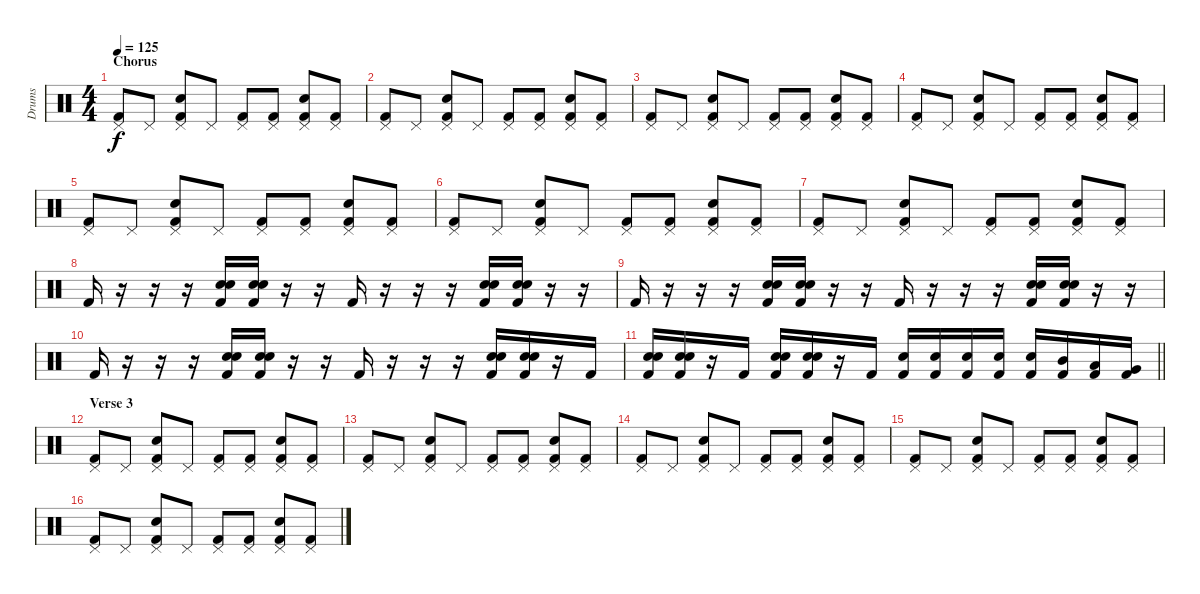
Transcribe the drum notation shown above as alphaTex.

\track ("Drums" "Drums") {instrument percussion}
\staff {score}
\articulation defaults
\ts (4 4)
\section ("" "Chorus")
\tempo 125
\clef neutral
\ks c
("Pedal Hi-Hat (hit)" "Kick (hit) 2").8{dy f} "Pedal Hi-Hat (hit)".8 ("Pedal Hi-Hat (hit)" "Snare (hit) 2" "Kick (hit) 2").8 "Pedal Hi-Hat (hit)".8 ("Pedal Hi-Hat (hit)" "Kick (hit) 2").8 ("Pedal Hi-Hat (hit)" "Kick (hit) 2").8 ("Pedal Hi-Hat (hit)" "Snare (hit) 2" "Kick (hit) 2").8 ("Pedal Hi-Hat (hit)" "Kick (hit) 2").8 |
("Pedal Hi-Hat (hit)" "Kick (hit) 2").8 "Pedal Hi-Hat (hit)".8 ("Pedal Hi-Hat (hit)" "Snare (hit) 2" "Kick (hit) 2").8 "Pedal Hi-Hat (hit)".8 ("Pedal Hi-Hat (hit)" "Kick (hit) 2").8 ("Pedal Hi-Hat (hit)" "Kick (hit) 2").8 ("Pedal Hi-Hat (hit)" "Snare (hit) 2" "Kick (hit) 2").8 ("Pedal Hi-Hat (hit)" "Kick (hit) 2").8 |
("Pedal Hi-Hat (hit)" "Kick (hit) 2").8 "Pedal Hi-Hat (hit)".8 ("Pedal Hi-Hat (hit)" "Snare (hit) 2" "Kick (hit) 2").8 "Pedal Hi-Hat (hit)".8 ("Pedal Hi-Hat (hit)" "Kick (hit) 2").8 ("Pedal Hi-Hat (hit)" "Kick (hit) 2").8 ("Pedal Hi-Hat (hit)" "Snare (hit) 2" "Kick (hit) 2").8 ("Pedal Hi-Hat (hit)" "Kick (hit) 2").8 |
("Pedal Hi-Hat (hit)" "Kick (hit) 2").8 "Pedal Hi-Hat (hit)".8 ("Pedal Hi-Hat (hit)" "Snare (hit) 2" "Kick (hit) 2").8 "Pedal Hi-Hat (hit)".8 ("Pedal Hi-Hat (hit)" "Kick (hit) 2").8 ("Pedal Hi-Hat (hit)" "Kick (hit) 2").8 ("Pedal Hi-Hat (hit)" "Snare (hit) 2" "Kick (hit) 2").8 ("Pedal Hi-Hat (hit)" "Kick (hit) 2").8 |
("Pedal Hi-Hat (hit)" "Kick (hit) 2").8 "Pedal Hi-Hat (hit)".8 ("Pedal Hi-Hat (hit)" "Snare (hit) 2" "Kick (hit) 2").8 "Pedal Hi-Hat (hit)".8 ("Pedal Hi-Hat (hit)" "Kick (hit) 2").8 ("Pedal Hi-Hat (hit)" "Kick (hit) 2").8 ("Pedal Hi-Hat (hit)" "Snare (hit) 2" "Kick (hit) 2").8 ("Pedal Hi-Hat (hit)" "Kick (hit) 2").8 |
("Pedal Hi-Hat (hit)" "Kick (hit) 2").8 "Pedal Hi-Hat (hit)".8 ("Pedal Hi-Hat (hit)" "Snare (hit) 2" "Kick (hit) 2").8 "Pedal Hi-Hat (hit)".8 ("Pedal Hi-Hat (hit)" "Kick (hit) 2").8 ("Pedal Hi-Hat (hit)" "Kick (hit) 2").8 ("Pedal Hi-Hat (hit)" "Snare (hit) 2" "Kick (hit) 2").8 ("Pedal Hi-Hat (hit)" "Kick (hit) 2").8 |
("Pedal Hi-Hat (hit)" "Kick (hit) 2").8 "Pedal Hi-Hat (hit)".8 ("Pedal Hi-Hat (hit)" "Snare (hit) 2" "Kick (hit) 2").8 "Pedal Hi-Hat (hit)".8 ("Pedal Hi-Hat (hit)" "Kick (hit) 2").8 ("Pedal Hi-Hat (hit)" "Kick (hit) 2").8 ("Pedal Hi-Hat (hit)" "Snare (hit) 2" "Kick (hit) 2").8 ("Pedal Hi-Hat (hit)" "Kick (hit) 2").8 |
"Kick (hit) 2".16 r.16 r.16 r.16 ("Electric Snare (hit)" "Snare (hit) 2" "Kick (hit) 2").16 ("Electric Snare (hit)" "Snare (hit) 2" "Kick (hit) 2").16 r.16 r.16 "Kick (hit) 2".16 r.16 r.16 r.16 ("Electric Snare (hit)" "Snare (hit) 2" "Kick (hit) 2").16 ("Electric Snare (hit)" "Snare (hit) 2" "Kick (hit) 2").16 r.16 r.16 |
"Kick (hit) 2".16 r.16 r.16 r.16 ("Electric Snare (hit)" "Snare (hit) 2" "Kick (hit) 2").16 ("Electric Snare (hit)" "Snare (hit) 2" "Kick (hit) 2").16 r.16 r.16 "Kick (hit) 2".16 r.16 r.16 r.16 ("Electric Snare (hit)" "Snare (hit) 2" "Kick (hit) 2").16 ("Electric Snare (hit)" "Snare (hit) 2" "Kick (hit) 2").16 r.16 r.16 |
"Kick (hit) 2".16 r.16 r.16 r.16 ("Electric Snare (hit)" "Snare (hit) 2" "Kick (hit) 2").16 ("Electric Snare (hit)" "Snare (hit) 2" "Kick (hit) 2").16 r.16 r.16 "Kick (hit) 2".16 r.16 r.16 r.16 ("Electric Snare (hit)" "Snare (hit) 2" "Kick (hit) 2").16 ("Electric Snare (hit)" "Snare (hit) 2" "Kick (hit) 2").16 r.16 "Kick (hit) 2".16 |
\barLineRight lightlight
("Electric Snare (hit)" "Snare (hit) 2" "Kick (hit) 2").16 ("Electric Snare (hit)" "Snare (hit) 2" "Kick (hit) 2").16 r.16 "Kick (hit) 2".16 ("Electric Snare (hit)" "Snare (hit) 2" "Kick (hit) 2").16 ("Electric Snare (hit)" "Snare (hit) 2" "Kick (hit) 2").16 r.16 "Kick (hit) 2".16 ("Snare (hit) 2" "Kick (hit) 2").16 ("Snare (hit) 2" "Kick (hit) 2").16 ("Snare (hit) 2" "Kick (hit) 2").16 ("Snare (hit) 2" "Kick (hit) 2").16 ("Snare (hit) 2" "Kick (hit) 2").16 ("Mid Tom (hit)" "Kick (hit) 2").16 ("Low Tom (hit)" "Kick (hit) 2").16 ("Very Low Tom (hit)" "Kick (hit) 2").16 |
\section ("" "Verse 3")
("Pedal Hi-Hat (hit)" "Kick (hit) 2").8 "Pedal Hi-Hat (hit)".8 ("Pedal Hi-Hat (hit)" "Snare (hit) 2" "Kick (hit) 2").8 "Pedal Hi-Hat (hit)".8 ("Pedal Hi-Hat (hit)" "Kick (hit) 2").8 ("Pedal Hi-Hat (hit)" "Kick (hit) 2").8 ("Pedal Hi-Hat (hit)" "Snare (hit) 2" "Kick (hit) 2").8 ("Pedal Hi-Hat (hit)" "Kick (hit) 2").8 |
("Pedal Hi-Hat (hit)" "Kick (hit) 2").8 "Pedal Hi-Hat (hit)".8 ("Pedal Hi-Hat (hit)" "Snare (hit) 2" "Kick (hit) 2").8 "Pedal Hi-Hat (hit)".8 ("Pedal Hi-Hat (hit)" "Kick (hit) 2").8 ("Pedal Hi-Hat (hit)" "Kick (hit) 2").8 ("Pedal Hi-Hat (hit)" "Snare (hit) 2" "Kick (hit) 2").8 ("Pedal Hi-Hat (hit)" "Kick (hit) 2").8 |
("Pedal Hi-Hat (hit)" "Kick (hit) 2").8 "Pedal Hi-Hat (hit)".8 ("Pedal Hi-Hat (hit)" "Snare (hit) 2" "Kick (hit) 2").8 "Pedal Hi-Hat (hit)".8 ("Pedal Hi-Hat (hit)" "Kick (hit) 2").8 ("Pedal Hi-Hat (hit)" "Kick (hit) 2").8 ("Pedal Hi-Hat (hit)" "Snare (hit) 2" "Kick (hit) 2").8 ("Pedal Hi-Hat (hit)" "Kick (hit) 2").8 |
("Pedal Hi-Hat (hit)" "Kick (hit) 2").8 "Pedal Hi-Hat (hit)".8 ("Pedal Hi-Hat (hit)" "Snare (hit) 2" "Kick (hit) 2").8 "Pedal Hi-Hat (hit)".8 ("Pedal Hi-Hat (hit)" "Kick (hit) 2").8 ("Pedal Hi-Hat (hit)" "Kick (hit) 2").8 ("Pedal Hi-Hat (hit)" "Snare (hit) 2" "Kick (hit) 2").8 ("Pedal Hi-Hat (hit)" "Kick (hit) 2").8 |
("Pedal Hi-Hat (hit)" "Kick (hit) 2").8 "Pedal Hi-Hat (hit)".8 ("Pedal Hi-Hat (hit)" "Snare (hit) 2" "Kick (hit) 2").8 "Pedal Hi-Hat (hit)".8 ("Pedal Hi-Hat (hit)" "Kick (hit) 2").8 ("Pedal Hi-Hat (hit)" "Kick (hit) 2").8 ("Pedal Hi-Hat (hit)" "Snare (hit) 2" "Kick (hit) 2").8 ("Pedal Hi-Hat (hit)" "Kick (hit) 2").8
